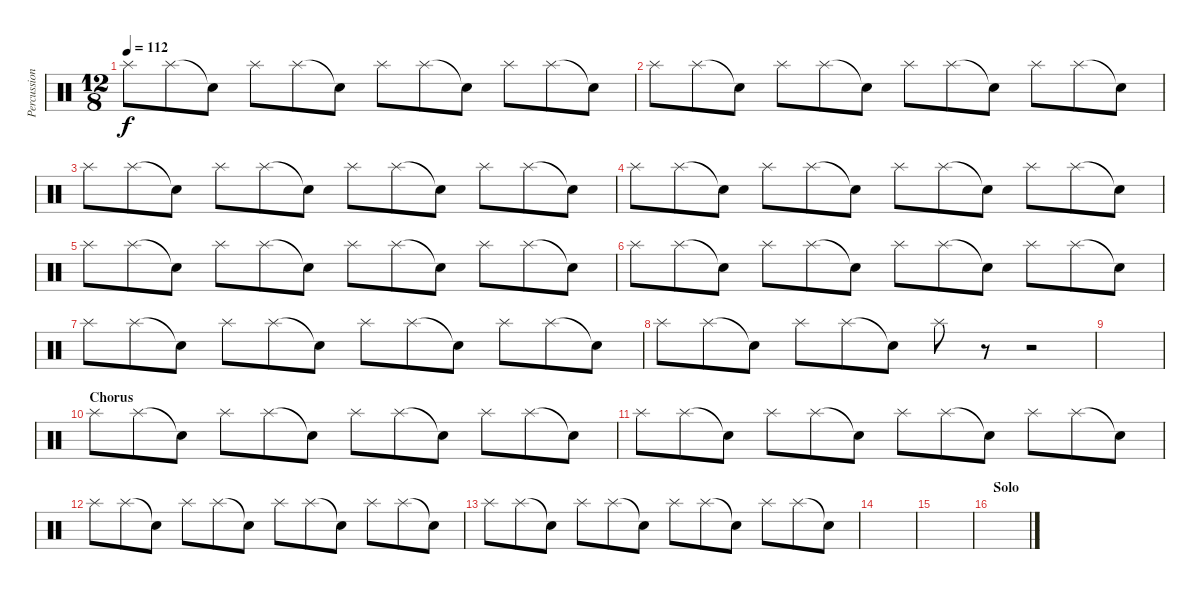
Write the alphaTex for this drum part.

\track ("Percussions" "Percussion") {instrument percussion}
\staff {score}
\articulation defaults
\ts (12 8)
\tempo 112
\clef neutral
\ks c "Splash (hit)".8{dy f} "Splash (hit)".8 "Snare (hit)"{t}.8 "Splash (hit)".8 "Splash (hit)".8 "Snare (hit)"{t}.8 "Splash (hit)".8 "Splash (hit)".8 "Snare (hit)"{t}.8 "Splash (hit)".8 "Splash (hit)".8 "Snare (hit)"{t}.8
|
"Splash (hit)".8 "Splash (hit)".8 "Snare (hit)"{t}.8 "Splash (hit)".8 "Splash (hit)".8 "Snare (hit)"{t}.8 "Splash (hit)".8 "Splash (hit)".8 "Snare (hit)"{t}.8 "Splash (hit)".8 "Splash (hit)".8 "Snare (hit)"{t}.8 |
"Splash (hit)".8 "Splash (hit)".8 "Snare (hit)"{t}.8 "Splash (hit)".8 "Splash (hit)".8 "Snare (hit)"{t}.8 "Splash (hit)".8 "Splash (hit)".8 "Snare (hit)"{t}.8 "Splash (hit)".8 "Splash (hit)".8 "Snare (hit)"{t}.8 |
"Splash (hit)".8 "Splash (hit)".8 "Snare (hit)"{t}.8 "Splash (hit)".8 "Splash (hit)".8 "Snare (hit)"{t}.8 "Splash (hit)".8 "Splash (hit)".8 "Snare (hit)"{t}.8 "Splash (hit)".8 "Splash (hit)".8 "Snare (hit)"{t}.8 |
"Splash (hit)".8 "Splash (hit)".8 "Snare (hit)"{t}.8 "Splash (hit)".8 "Splash (hit)".8 "Snare (hit)"{t}.8 "Splash (hit)".8 "Splash (hit)".8 "Snare (hit)"{t}.8 "Splash (hit)".8 "Splash (hit)".8 "Snare (hit)"{t}.8 |
"Splash (hit)".8 "Splash (hit)".8 "Snare (hit)"{t}.8 "Splash (hit)".8 "Splash (hit)".8 "Snare (hit)"{t}.8 "Splash (hit)".8 "Splash (hit)".8 "Snare (hit)"{t}.8 "Splash (hit)".8 "Splash (hit)".8 "Snare (hit)"{t}.8 |
"Splash (hit)".8 "Splash (hit)".8 "Snare (hit)"{t}.8 "Splash (hit)".8 "Splash (hit)".8 "Snare (hit)"{t}.8 "Splash (hit)".8 "Splash (hit)".8 "Snare (hit)"{t}.8 "Splash (hit)".8 "Splash (hit)".8 "Snare (hit)"{t}.8 |
"Splash (hit)".8 "Splash (hit)".8 "Snare (hit)"{t}.8 "Splash (hit)".8 "Splash (hit)".8 "Snare (hit)"{t}.8 "Splash (hit)".8 r.8 r.2 |
|
\section ("" "Chorus")
"Splash (hit)".8 "Splash (hit)".8 "Snare (hit)"{t}.8 "Splash (hit)".8 "Splash (hit)".8 "Snare (hit)"{t}.8 "Splash (hit)".8 "Splash (hit)".8 "Snare (hit)"{t}.8 "Splash (hit)".8 "Splash (hit)".8 "Snare (hit)"{t}.8 |
"Splash (hit)".8 "Splash (hit)".8 "Snare (hit)"{t}.8 "Splash (hit)".8 "Splash (hit)".8 "Snare (hit)"{t}.8 "Splash (hit)".8 "Splash (hit)".8 "Snare (hit)"{t}.8 "Splash (hit)".8 "Splash (hit)".8 "Snare (hit)"{t}.8 |
"Splash (hit)".8 "Splash (hit)".8 "Snare (hit)"{t}.8 "Splash (hit)".8 "Splash (hit)".8 "Snare (hit)"{t}.8 "Splash (hit)".8 "Splash (hit)".8 "Snare (hit)"{t}.8 "Splash (hit)".8 "Splash (hit)".8 "Snare (hit)"{t}.8 |
"Splash (hit)".8 "Splash (hit)".8 "Snare (hit)"{t}.8 "Splash (hit)".8 "Splash (hit)".8 "Snare (hit)"{t}.8 "Splash (hit)".8 "Splash (hit)".8 "Snare (hit)"{t}.8 "Splash (hit)".8 "Splash (hit)".8 "Snare (hit)"{t}.8 |
|
|
\section ("" "Solo")
